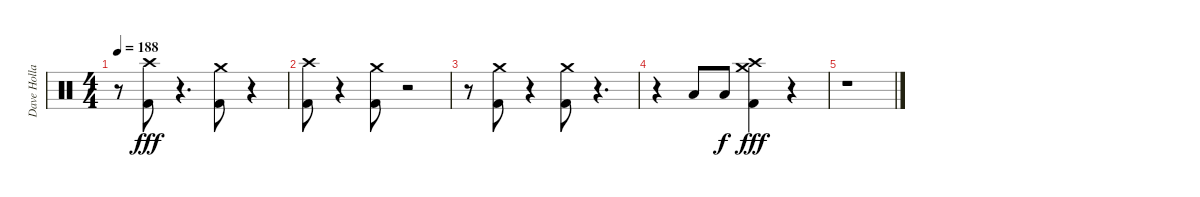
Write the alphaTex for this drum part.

\track ("Dave Holland" "Dave Holla") {instrument percussion}
\staff {score}
\articulation defaults
\ts (4 4)
\tempo 188
\clef neutral
\ks c
r.8{dy f} ("Kick (hit) 2" "Crash high (hit)").8{dy fff} r.4{d} ("Kick (hit) 2" "Crash medium (hit)").8 r.4 |
("Kick (hit) 2" "Crash high (hit)").8 r.4 ("Kick (hit) 2" "Crash medium (hit)").8 r.2 |
r.8 ("Kick (hit) 2" "Crash medium (hit)").8 r.4 ("Kick (hit) 2" "Crash medium (hit)").8 r.4{d} |
r.4 "Low Tom (hit)".8 "Low Floor Tom (hit)".8{dy f} ("Kick (hit) 2" "Crash medium (hit)" "Crash high (hit)").4{dy fff} r.4 |
r.1
